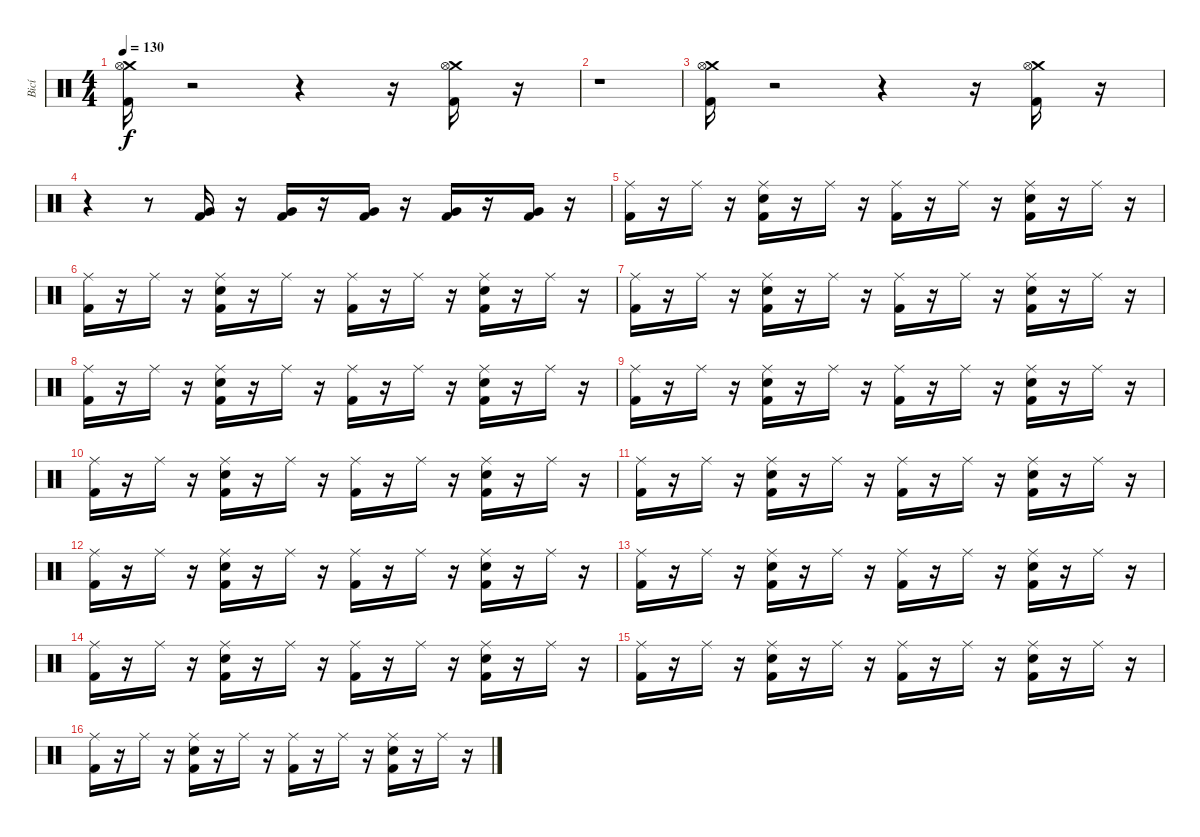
\track ("Bicí" "Bicí") {instrument percussion}
\staff {score}
\articulation defaults
\ts (4 4)
\tempo 130
\clef neutral
\ks c
("Crash medium (hit)" "Hi-Hat (open)" "Kick (hit) 2").16{dy f} r.2 r.4 r.16 ("Crash medium (hit)" "Hi-Hat (open)" "Kick (hit) 2").16 r.16 |
r.1 |
("Crash medium (hit)" "Hi-Hat (open)" "Kick (hit) 2").16 r.2 r.4 r.16 ("Crash medium (hit)" "Hi-Hat (open)" "Kick (hit) 2").16 r.16 |
r.4 r.8 ("Very Low Tom (hit)" "Kick (hit) 2").16 r.16 ("Very Low Tom (hit)" "Kick (hit) 2").16 r.16 ("Very Low Tom (hit)" "Kick (hit) 2").16 r.16 ("Very Low Tom (hit)" "Kick (hit) 2").16 r.16 ("Very Low Tom (hit)" "Kick (hit) 2").16 r.16 |
("Ride (middle)" "Kick (hit) 2").16 r.16 "Ride (middle)".16 r.16 ("Ride (middle)" "Electric Snare (hit)" "Kick (hit) 2").16 r.16 "Ride (middle)".16 r.16 ("Ride (middle)" "Kick (hit) 2").16 r.16 "Ride (middle)".16 r.16 ("Ride (middle)" "Electric Snare (hit)" "Kick (hit) 2").16 r.16 "Ride (middle)".16 r.16 |
("Ride (middle)" "Kick (hit) 2").16 r.16 "Ride (middle)".16 r.16 ("Ride (middle)" "Electric Snare (hit)" "Kick (hit) 2").16 r.16 "Ride (middle)".16 r.16 ("Ride (middle)" "Kick (hit) 2").16 r.16 "Ride (middle)".16 r.16 ("Ride (middle)" "Electric Snare (hit)" "Kick (hit) 2").16 r.16 "Ride (middle)".16 r.16 |
("Ride (middle)" "Kick (hit) 2").16 r.16 "Ride (middle)".16 r.16 ("Ride (middle)" "Electric Snare (hit)" "Kick (hit) 2").16 r.16 "Ride (middle)".16 r.16 ("Ride (middle)" "Kick (hit) 2").16 r.16 "Ride (middle)".16 r.16 ("Ride (middle)" "Electric Snare (hit)" "Kick (hit) 2").16 r.16 "Ride (middle)".16 r.16 |
("Ride (middle)" "Kick (hit) 2").16 r.16 "Ride (middle)".16 r.16 ("Ride (middle)" "Electric Snare (hit)" "Kick (hit) 2").16 r.16 "Ride (middle)".16 r.16 ("Ride (middle)" "Kick (hit) 2").16 r.16 "Ride (middle)".16 r.16 ("Ride (middle)" "Electric Snare (hit)" "Kick (hit) 2").16 r.16 "Ride (middle)".16 r.16 |
("Ride (middle)" "Kick (hit) 2").16 r.16 "Ride (middle)".16 r.16 ("Ride (middle)" "Electric Snare (hit)" "Kick (hit) 2").16 r.16 "Ride (middle)".16 r.16 ("Ride (middle)" "Kick (hit) 2").16 r.16 "Ride (middle)".16 r.16 ("Ride (middle)" "Electric Snare (hit)" "Kick (hit) 2").16 r.16 "Ride (middle)".16 r.16 |
("Ride (middle)" "Kick (hit) 2").16 r.16 "Ride (middle)".16 r.16 ("Ride (middle)" "Electric Snare (hit)" "Kick (hit) 2").16 r.16 "Ride (middle)".16 r.16 ("Ride (middle)" "Kick (hit) 2").16 r.16 "Ride (middle)".16 r.16 ("Ride (middle)" "Electric Snare (hit)" "Kick (hit) 2").16 r.16 "Ride (middle)".16 r.16 |
("Ride (middle)" "Kick (hit) 2").16 r.16 "Ride (middle)".16 r.16 ("Ride (middle)" "Electric Snare (hit)" "Kick (hit) 2").16 r.16 "Ride (middle)".16 r.16 ("Ride (middle)" "Kick (hit) 2").16 r.16 "Ride (middle)".16 r.16 ("Ride (middle)" "Electric Snare (hit)" "Kick (hit) 2").16 r.16 "Ride (middle)".16 r.16 |
("Ride (middle)" "Kick (hit) 2").16 r.16 "Ride (middle)".16 r.16 ("Ride (middle)" "Electric Snare (hit)" "Kick (hit) 2").16 r.16 "Ride (middle)".16 r.16 ("Ride (middle)" "Kick (hit) 2").16 r.16 "Ride (middle)".16 r.16 ("Ride (middle)" "Electric Snare (hit)" "Kick (hit) 2").16 r.16 "Ride (middle)".16 r.16 |
("Ride (middle)" "Kick (hit) 2").16 r.16 "Ride (middle)".16 r.16 ("Ride (middle)" "Electric Snare (hit)" "Kick (hit) 2").16 r.16 "Ride (middle)".16 r.16 ("Ride (middle)" "Kick (hit) 2").16 r.16 "Ride (middle)".16 r.16 ("Ride (middle)" "Electric Snare (hit)" "Kick (hit) 2").16 r.16 "Ride (middle)".16 r.16 |
("Ride (middle)" "Kick (hit) 2").16 r.16 "Ride (middle)".16 r.16 ("Ride (middle)" "Electric Snare (hit)" "Kick (hit) 2").16 r.16 "Ride (middle)".16 r.16 ("Ride (middle)" "Kick (hit) 2").16 r.16 "Ride (middle)".16 r.16 ("Ride (middle)" "Electric Snare (hit)" "Kick (hit) 2").16 r.16 "Ride (middle)".16 r.16 |
("Ride (middle)" "Kick (hit) 2").16 r.16 "Ride (middle)".16 r.16 ("Ride (middle)" "Electric Snare (hit)" "Kick (hit) 2").16 r.16 "Ride (middle)".16 r.16 ("Ride (middle)" "Kick (hit) 2").16 r.16 "Ride (middle)".16 r.16 ("Ride (middle)" "Electric Snare (hit)" "Kick (hit) 2").16 r.16 "Ride (middle)".16 r.16 |
("Ride (middle)" "Kick (hit) 2").16 r.16 "Ride (middle)".16 r.16 ("Ride (middle)" "Electric Snare (hit)" "Kick (hit) 2").16 r.16 "Ride (middle)".16 r.16 ("Ride (middle)" "Kick (hit) 2").16 r.16 "Ride (middle)".16 r.16 ("Ride (middle)" "Electric Snare (hit)" "Kick (hit) 2").16 r.16 "Ride (middle)".16 r.16
